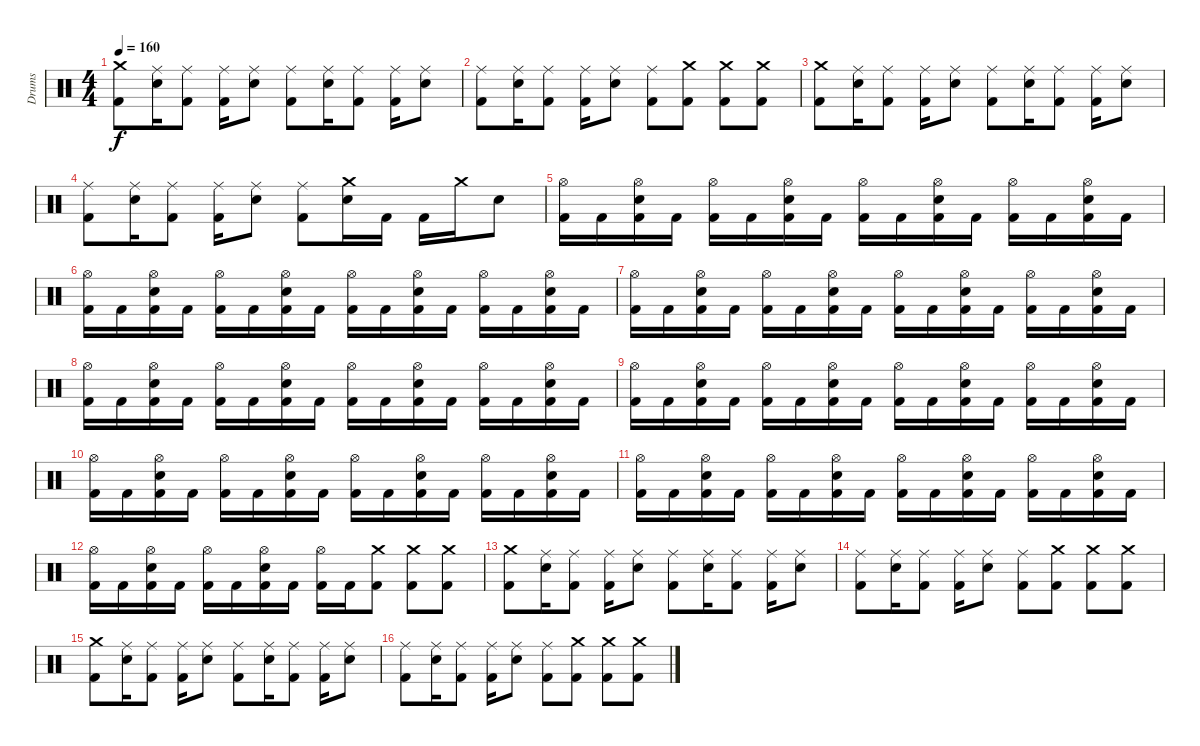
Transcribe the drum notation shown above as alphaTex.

\track ("Drums" "Drums") {instrument percussion}
\staff {score}
\articulation defaults
\ts (4 4)
\tempo 160
\clef neutral
\ks c
("Crash medium (hit)" "Kick (hit) 2").8{dy f} ("Snare (hit) 2" "Ride (middle)").16 ("Ride (middle)" "Kick (hit) 2").8 ("Ride (middle)" "Kick (hit) 2").16 ("Snare (hit) 2" "Ride (middle)").8 ("Ride (middle)" "Kick (hit) 2").8 ("Snare (hit) 2" "Ride (middle)").16 ("Ride (middle)" "Kick (hit) 2").8 ("Ride (middle)" "Kick (hit) 2").16 ("Snare (hit) 2" "Ride (middle)").8 |
("Ride (middle)" "Kick (hit) 2").8 ("Snare (hit) 2" "Ride (middle)").16 ("Ride (middle)" "Kick (hit) 2").8 ("Ride (middle)" "Kick (hit) 2").16 ("Snare (hit) 2" "Ride (middle)").8 ("Ride (middle)" "Kick (hit) 2").8 ("Crash medium (hit)" "Kick (hit) 2").8 ("Crash medium (hit)" "Kick (hit) 2").8 ("Crash medium (hit)" "Kick (hit) 2").8 |
("Crash medium (hit)" "Kick (hit) 2").8 ("Snare (hit) 2" "Ride (middle)").16 ("Ride (middle)" "Kick (hit) 2").8 ("Ride (middle)" "Kick (hit) 2").16 ("Snare (hit) 2" "Ride (middle)").8 ("Ride (middle)" "Kick (hit) 2").8 ("Snare (hit) 2" "Ride (middle)").16 ("Ride (middle)" "Kick (hit) 2").8 ("Ride (middle)" "Kick (hit) 2").16 ("Snare (hit) 2" "Ride (middle)").8 |
("Ride (middle)" "Kick (hit) 2").8 ("Snare (hit) 2" "Ride (middle)").16 ("Ride (middle)" "Kick (hit) 2").8 ("Ride (middle)" "Kick (hit) 2").16 ("Snare (hit) 2" "Ride (middle)").8 ("Ride (middle)" "Kick (hit) 2").8 ("Snare (hit) 2" "Crash medium (hit)").16 "Kick (hit) 2".16 "Kick (hit) 2".16 "Crash medium (hit)".16 "Snare (hit) 2".8 |
("Hi-Hat (open)" "Kick (hit) 2").16 "Kick (hit) 2".16 ("Snare (hit) 2" "Hi-Hat (open)" "Kick (hit) 2").16 "Kick (hit) 2".16 ("Hi-Hat (open)" "Kick (hit) 2").16 "Kick (hit) 2".16 ("Snare (hit) 2" "Hi-Hat (open)" "Kick (hit) 2").16 "Kick (hit) 2".16 ("Hi-Hat (open)" "Kick (hit) 2").16 "Kick (hit) 2".16 ("Snare (hit) 2" "Hi-Hat (open)" "Kick (hit) 2").16 "Kick (hit) 2".16 ("Hi-Hat (open)" "Kick (hit) 2").16 "Kick (hit) 2".16 ("Snare (hit) 2" "Hi-Hat (open)" "Kick (hit) 2").16 "Kick (hit) 2".16 |
("Hi-Hat (open)" "Kick (hit) 2").16 "Kick (hit) 2".16 ("Snare (hit) 2" "Hi-Hat (open)" "Kick (hit) 2").16 "Kick (hit) 2".16 ("Hi-Hat (open)" "Kick (hit) 2").16 "Kick (hit) 2".16 ("Snare (hit) 2" "Hi-Hat (open)" "Kick (hit) 2").16 "Kick (hit) 2".16 ("Hi-Hat (open)" "Kick (hit) 2").16 "Kick (hit) 2".16 ("Snare (hit) 2" "Hi-Hat (open)" "Kick (hit) 2").16 "Kick (hit) 2".16 ("Hi-Hat (open)" "Kick (hit) 2").16 "Kick (hit) 2".16 ("Snare (hit) 2" "Hi-Hat (open)" "Kick (hit) 2").16 "Kick (hit) 2".16 |
("Hi-Hat (open)" "Kick (hit) 2").16 "Kick (hit) 2".16 ("Snare (hit) 2" "Hi-Hat (open)" "Kick (hit) 2").16 "Kick (hit) 2".16 ("Hi-Hat (open)" "Kick (hit) 2").16 "Kick (hit) 2".16 ("Snare (hit) 2" "Hi-Hat (open)" "Kick (hit) 2").16 "Kick (hit) 2".16 ("Hi-Hat (open)" "Kick (hit) 2").16 "Kick (hit) 2".16 ("Snare (hit) 2" "Hi-Hat (open)" "Kick (hit) 2").16 "Kick (hit) 2".16 ("Hi-Hat (open)" "Kick (hit) 2").16 "Kick (hit) 2".16 ("Snare (hit) 2" "Hi-Hat (open)" "Kick (hit) 2").16 "Kick (hit) 2".16 |
("Hi-Hat (open)" "Kick (hit) 2").16 "Kick (hit) 2".16 ("Snare (hit) 2" "Hi-Hat (open)" "Kick (hit) 2").16 "Kick (hit) 2".16 ("Hi-Hat (open)" "Kick (hit) 2").16 "Kick (hit) 2".16 ("Snare (hit) 2" "Hi-Hat (open)" "Kick (hit) 2").16 "Kick (hit) 2".16 ("Hi-Hat (open)" "Kick (hit) 2").16 "Kick (hit) 2".16 ("Snare (hit) 2" "Hi-Hat (open)" "Kick (hit) 2").16 "Kick (hit) 2".16 ("Hi-Hat (open)" "Kick (hit) 2").16 "Kick (hit) 2".16 ("Snare (hit) 2" "Hi-Hat (open)" "Kick (hit) 2").16 "Kick (hit) 2".16 |
("Hi-Hat (open)" "Kick (hit) 2").16 "Kick (hit) 2".16 ("Snare (hit) 2" "Hi-Hat (open)" "Kick (hit) 2").16 "Kick (hit) 2".16 ("Hi-Hat (open)" "Kick (hit) 2").16 "Kick (hit) 2".16 ("Snare (hit) 2" "Hi-Hat (open)" "Kick (hit) 2").16 "Kick (hit) 2".16 ("Hi-Hat (open)" "Kick (hit) 2").16 "Kick (hit) 2".16 ("Snare (hit) 2" "Hi-Hat (open)" "Kick (hit) 2").16 "Kick (hit) 2".16 ("Hi-Hat (open)" "Kick (hit) 2").16 "Kick (hit) 2".16 ("Snare (hit) 2" "Hi-Hat (open)" "Kick (hit) 2").16 "Kick (hit) 2".16 |
("Hi-Hat (open)" "Kick (hit) 2").16 "Kick (hit) 2".16 ("Snare (hit) 2" "Hi-Hat (open)" "Kick (hit) 2").16 "Kick (hit) 2".16 ("Hi-Hat (open)" "Kick (hit) 2").16 "Kick (hit) 2".16 ("Snare (hit) 2" "Hi-Hat (open)" "Kick (hit) 2").16 "Kick (hit) 2".16 ("Hi-Hat (open)" "Kick (hit) 2").16 "Kick (hit) 2".16 ("Snare (hit) 2" "Hi-Hat (open)" "Kick (hit) 2").16 "Kick (hit) 2".16 ("Hi-Hat (open)" "Kick (hit) 2").16 "Kick (hit) 2".16 ("Snare (hit) 2" "Hi-Hat (open)" "Kick (hit) 2").16 "Kick (hit) 2".16 |
("Hi-Hat (open)" "Kick (hit) 2").16 "Kick (hit) 2".16 ("Snare (hit) 2" "Hi-Hat (open)" "Kick (hit) 2").16 "Kick (hit) 2".16 ("Hi-Hat (open)" "Kick (hit) 2").16 "Kick (hit) 2".16 ("Snare (hit) 2" "Hi-Hat (open)" "Kick (hit) 2").16 "Kick (hit) 2".16 ("Hi-Hat (open)" "Kick (hit) 2").16 "Kick (hit) 2".16 ("Snare (hit) 2" "Hi-Hat (open)" "Kick (hit) 2").16 "Kick (hit) 2".16 ("Hi-Hat (open)" "Kick (hit) 2").16 "Kick (hit) 2".16 ("Snare (hit) 2" "Hi-Hat (open)" "Kick (hit) 2").16 "Kick (hit) 2".16 |
("Hi-Hat (open)" "Kick (hit) 2").16 "Kick (hit) 2".16 ("Snare (hit) 2" "Hi-Hat (open)" "Kick (hit) 2").16 "Kick (hit) 2".16 ("Hi-Hat (open)" "Kick (hit) 2").16 "Kick (hit) 2".16 ("Snare (hit) 2" "Hi-Hat (open)" "Kick (hit) 2").16 "Kick (hit) 2".16 ("Hi-Hat (open)" "Kick (hit) 2").16 "Kick (hit) 2".16 ("Crash medium (hit)" "Kick (hit) 2").8 ("Crash medium (hit)" "Kick (hit) 2").8 ("Crash medium (hit)" "Kick (hit) 2").8 |
("Crash medium (hit)" "Kick (hit) 2").8 ("Snare (hit) 2" "Ride (middle)").16 ("Ride (middle)" "Kick (hit) 2").8 ("Ride (middle)" "Kick (hit) 2").16 ("Snare (hit) 2" "Ride (middle)").8 ("Ride (middle)" "Kick (hit) 2").8 ("Snare (hit) 2" "Ride (middle)").16 ("Ride (middle)" "Kick (hit) 2").8 ("Ride (middle)" "Kick (hit) 2").16 ("Snare (hit) 2" "Ride (middle)").8 |
("Ride (middle)" "Kick (hit) 2").8 ("Snare (hit) 2" "Ride (middle)").16 ("Ride (middle)" "Kick (hit) 2").8 ("Ride (middle)" "Kick (hit) 2").16 ("Snare (hit) 2" "Ride (middle)").8 ("Ride (middle)" "Kick (hit) 2").8 ("Crash medium (hit)" "Kick (hit) 2").8 ("Crash medium (hit)" "Kick (hit) 2").8 ("Crash medium (hit)" "Kick (hit) 2").8 |
("Crash medium (hit)" "Kick (hit) 2").8 ("Snare (hit) 2" "Ride (middle)").16 ("Ride (middle)" "Kick (hit) 2").8 ("Ride (middle)" "Kick (hit) 2").16 ("Snare (hit) 2" "Ride (middle)").8 ("Ride (middle)" "Kick (hit) 2").8 ("Snare (hit) 2" "Ride (middle)").16 ("Ride (middle)" "Kick (hit) 2").8 ("Ride (middle)" "Kick (hit) 2").16 ("Snare (hit) 2" "Ride (middle)").8 |
("Ride (middle)" "Kick (hit) 2").8 ("Snare (hit) 2" "Ride (middle)").16 ("Ride (middle)" "Kick (hit) 2").8 ("Ride (middle)" "Kick (hit) 2").16 ("Snare (hit) 2" "Ride (middle)").8 ("Ride (middle)" "Kick (hit) 2").8 ("Crash medium (hit)" "Kick (hit) 2").8 ("Crash medium (hit)" "Kick (hit) 2").8 ("Crash medium (hit)" "Kick (hit) 2").8
